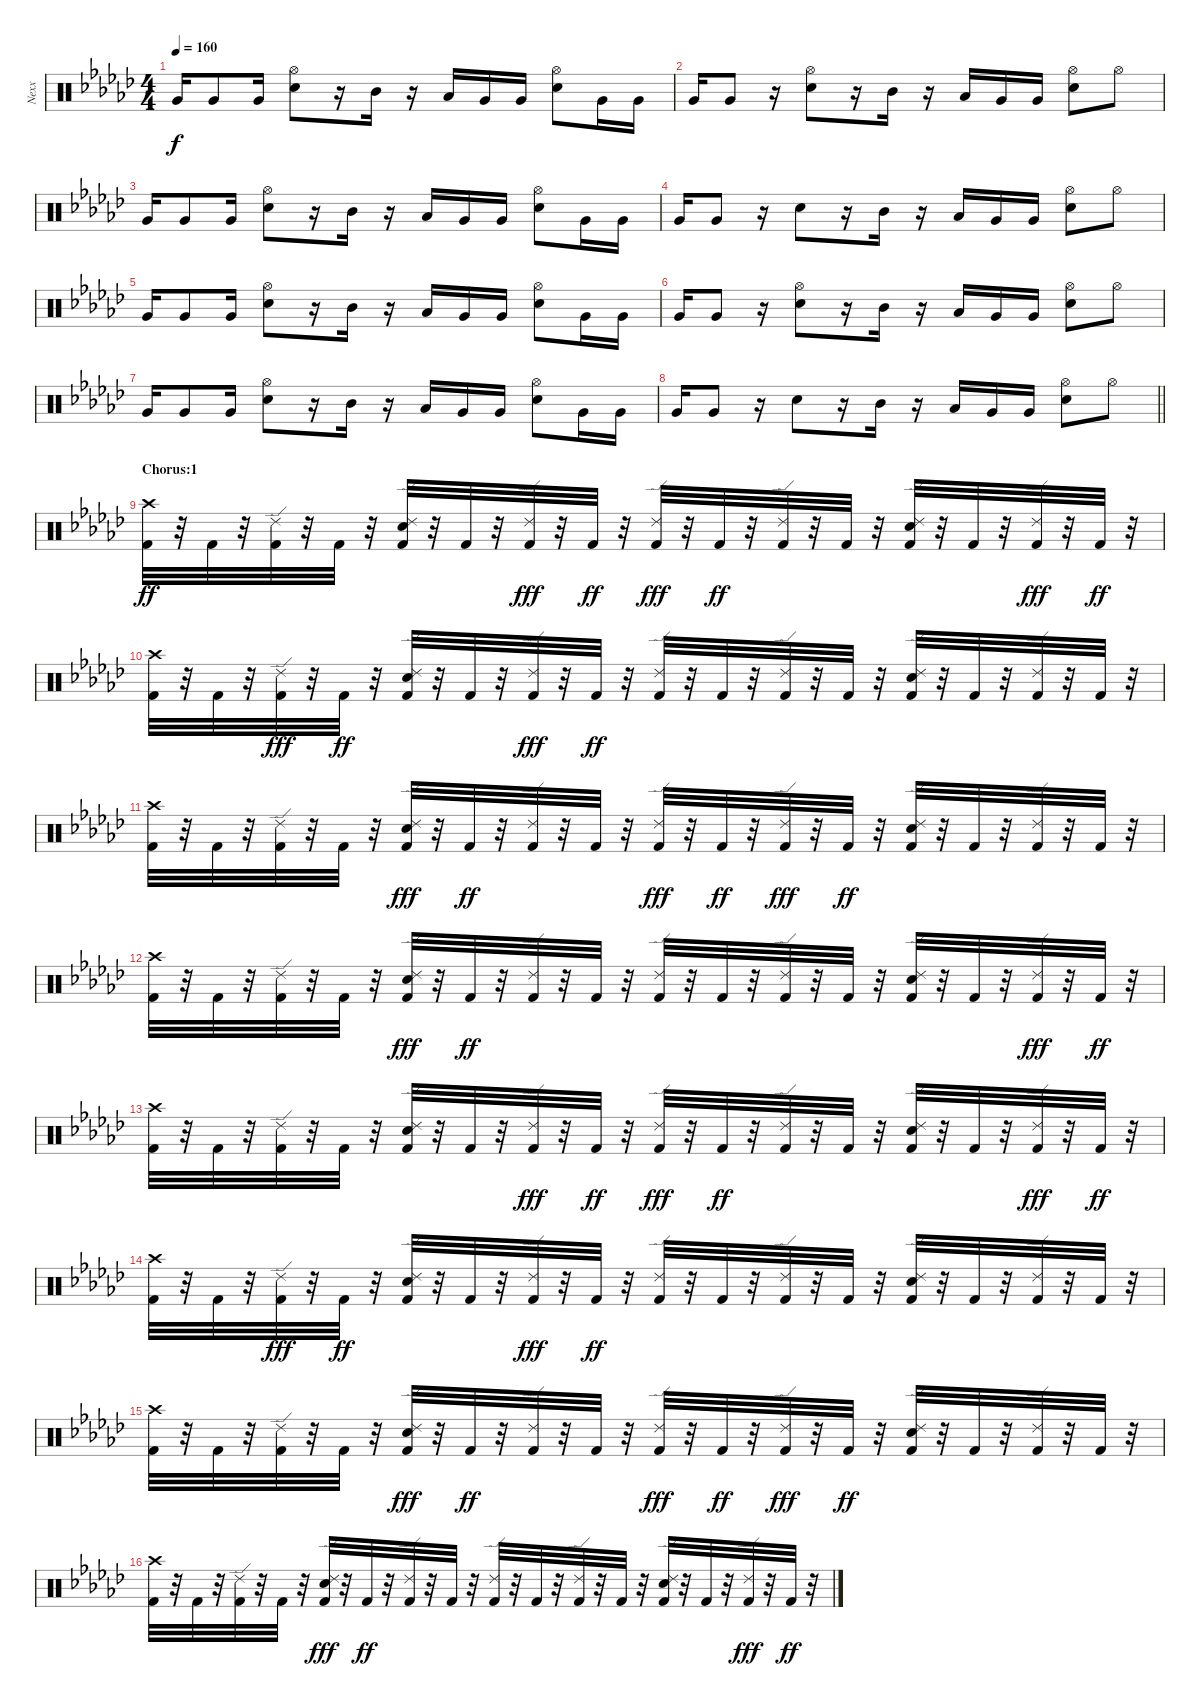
\track ("Nexx" "Nexx") {instrument percussion}
\staff {score}
\articulation defaults
\ts (4 4)
\tempo 160
\clef neutral
\ks ebminor "Very Low Tom (hit)".16{dy f} "Very Low Tom (hit)".8 "Very Low Tom (hit)".16
("Hi-Hat (open)" "Snare (hit) 2").8 r.16 "Mid Tom (hit)".16 r.16 "Low Tom (hit)".16 "Very Low Tom (hit)".16 "Very Low Tom (hit)".16 ("Hi-Hat (open)" "Snare (hit) 2").8 "Very Low Tom (hit)".16 "Very Low Tom (hit)".16 |
"Very Low Tom (hit)".16 "Very Low Tom (hit)".8 r.16 ("Hi-Hat (open)" "Snare (hit) 2").8 r.16 "Mid Tom (hit)".16 r.16 "Low Tom (hit)".16 "Very Low Tom (hit)".16 "Very Low Tom (hit)".16 ("Hi-Hat (open)" "Snare (hit) 2").8 "Hi-Hat (open)".8 |
"Very Low Tom (hit)".16 "Very Low Tom (hit)".8 "Very Low Tom (hit)".16 ("Hi-Hat (open)" "Snare (hit) 2").8 r.16 "Mid Tom (hit)".16 r.16 "Low Tom (hit)".16 "Very Low Tom (hit)".16 "Very Low Tom (hit)".16 ("Hi-Hat (open)" "Snare (hit) 2").8 "Very Low Tom (hit)".16 "Very Low Tom (hit)".16 |
"Very Low Tom (hit)".16 "Very Low Tom (hit)".8 r.16 "Snare (hit) 2".8 r.16 "Mid Tom (hit)".16 r.16 "Low Tom (hit)".16 "Very Low Tom (hit)".16 "Very Low Tom (hit)".16 ("Hi-Hat (open)" "Snare (hit) 2").8 "Hi-Hat (open)".8 |
"Very Low Tom (hit)".16 "Very Low Tom (hit)".8 "Very Low Tom (hit)".16 ("Hi-Hat (open)" "Snare (hit) 2").8 r.16 "Mid Tom (hit)".16 r.16 "Low Tom (hit)".16 "Very Low Tom (hit)".16 "Very Low Tom (hit)".16 ("Hi-Hat (open)" "Snare (hit) 2").8 "Very Low Tom (hit)".16 "Very Low Tom (hit)".16 |
"Very Low Tom (hit)".16 "Very Low Tom (hit)".8 r.16 ("Hi-Hat (open)" "Snare (hit) 2").8 r.16 "Mid Tom (hit)".16 r.16 "Low Tom (hit)".16 "Very Low Tom (hit)".16 "Very Low Tom (hit)".16 ("Hi-Hat (open)" "Snare (hit) 2").8 "Hi-Hat (open)".8 |
"Very Low Tom (hit)".16 "Very Low Tom (hit)".8 "Very Low Tom (hit)".16 ("Hi-Hat (open)" "Snare (hit) 2").8 r.16 "Mid Tom (hit)".16 r.16 "Low Tom (hit)".16 "Very Low Tom (hit)".16 "Very Low Tom (hit)".16 ("Hi-Hat (open)" "Snare (hit) 2").8 "Very Low Tom (hit)".16 "Very Low Tom (hit)".16 |
\barLineRight lightlight "Very Low Tom (hit)".16 "Very Low Tom (hit)".8
r.16 "Snare (hit) 2".8 r.16 "Mid Tom (hit)".16 r.16 "Low Tom (hit)".16 "Very Low Tom (hit)".16 "Very Low Tom (hit)".16 ("Hi-Hat (open)" "Snare (hit) 2").8 "Hi-Hat (open)".8 |
\section ("" "Chorus:1")
("Crash high (hit)" "Kick (hit) 2").32{dy ff volume 13} r.32 "Kick (hit) 2".32 r.32 ("Ride (edge) 2" "Kick (hit) 2").32 r.32 "Kick (hit) 2".32 r.32 ("Kick (hit) 2" "Ride (edge) 2" "Electric Snare (hit)").32 r.32 "Kick (hit) 2".32 r.32 ("Kick (hit) 2" "Ride (edge) 2").32{dy fff} r.32 "Kick (hit) 2".32{dy ff} r.32 ("Kick (hit) 2" "Ride (edge) 2").32{dy fff} r.32 "Kick (hit) 2".32{dy ff} r.32 ("Ride (edge) 2" "Kick (hit) 2").32 r.32 "Kick (hit) 2".32 r.32 ("Electric Snare (hit)" "Ride (edge) 2" "Kick (hit) 2").32 r.32 "Kick (hit) 2".32 r.32 ("Kick (hit) 2" "Ride (edge) 2").32{dy fff} r.32 "Kick (hit) 2".32{dy ff} r.32 |
("Kick (hit) 2" "Crash high (hit)").32 r.32 "Kick (hit) 2".32 r.32 ("Kick (hit) 2" "Ride (edge) 2").32{dy fff} r.32 "Kick (hit) 2".32{dy ff} r.32 ("Electric Snare (hit)" "Ride (edge) 2" "Kick (hit) 2").32 r.32 "Kick (hit) 2".32 r.32 ("Kick (hit) 2" "Ride (edge) 2").32{dy fff} r.32 "Kick (hit) 2".32{dy ff} r.32 ("Ride (edge) 2" "Kick (hit) 2").32 r.32 "Kick (hit) 2".32 r.32 ("Ride (edge) 2" "Kick (hit) 2").32 r.32 "Kick (hit) 2".32 r.32 ("Kick (hit) 2" "Ride (edge) 2" "Electric Snare (hit)").32 r.32 "Kick (hit) 2".32 r.32 ("Ride (edge) 2" "Kick (hit) 2").32 r.32 "Kick (hit) 2".32 r.32 |
("Crash high (hit)" "Kick (hit) 2").32 r.32 "Kick (hit) 2".32 r.32 ("Ride (edge) 2" "Kick (hit) 2").32 r.32 "Kick (hit) 2".32 r.32 ("Kick (hit) 2" "Electric Snare (hit)" "Ride (edge) 2").32{dy fff} r.32 "Kick (hit) 2".32{dy ff} r.32 ("Ride (edge) 2" "Kick (hit) 2").32 r.32 "Kick (hit) 2".32 r.32 ("Kick (hit) 2" "Ride (edge) 2").32{dy fff} r.32 "Kick (hit) 2".32{dy ff} r.32 ("Kick (hit) 2" "Ride (edge) 2").32{dy fff} r.32 "Kick (hit) 2".32{dy ff} r.32 ("Ride (edge) 2" "Electric Snare (hit)" "Kick (hit) 2").32 r.32 "Kick (hit) 2".32 r.32 ("Ride (edge) 2" "Kick (hit) 2").32 r.32 "Kick (hit) 2".32 r.32 |
("Kick (hit) 2" "Crash high (hit)").32 r.32 "Kick (hit) 2".32 r.32 ("Ride (edge) 2" "Kick (hit) 2").32 r.32 "Kick (hit) 2".32 r.32 ("Electric Snare (hit)" "Kick (hit) 2" "Ride (edge) 2").32{dy fff} r.32 "Kick (hit) 2".32{dy ff} r.32 ("Ride (edge) 2" "Kick (hit) 2").32 r.32 "Kick (hit) 2".32 r.32 ("Ride (edge) 2" "Kick (hit) 2").32 r.32 "Kick (hit) 2".32 r.32 ("Ride (edge) 2" "Kick (hit) 2").32 r.32 "Kick (hit) 2".32 r.32 ("Kick (hit) 2" "Ride (edge) 2" "Electric Snare (hit)").32 r.32 "Kick (hit) 2".32 r.32 ("Kick (hit) 2" "Ride (edge) 2").32{dy fff} r.32 "Kick (hit) 2".32{dy ff} r.32 |
("Crash high (hit)" "Kick (hit) 2").32 r.32 "Kick (hit) 2".32 r.32 ("Ride (edge) 2" "Kick (hit) 2").32 r.32 "Kick (hit) 2".32 r.32 ("Kick (hit) 2" "Ride (edge) 2" "Electric Snare (hit)").32 r.32 "Kick (hit) 2".32 r.32 ("Kick (hit) 2" "Ride (edge) 2").32{dy fff} r.32 "Kick (hit) 2".32{dy ff} r.32 ("Kick (hit) 2" "Ride (edge) 2").32{dy fff} r.32 "Kick (hit) 2".32{dy ff} r.32 ("Ride (edge) 2" "Kick (hit) 2").32 r.32 "Kick (hit) 2".32 r.32 ("Electric Snare (hit)" "Ride (edge) 2" "Kick (hit) 2").32 r.32 "Kick (hit) 2".32 r.32 ("Kick (hit) 2" "Ride (edge) 2").32{dy fff} r.32 "Kick (hit) 2".32{dy ff} r.32 |
("Kick (hit) 2" "Crash high (hit)").32 r.32 "Kick (hit) 2".32 r.32 ("Kick (hit) 2" "Ride (edge) 2").32{dy fff} r.32 "Kick (hit) 2".32{dy ff} r.32 ("Electric Snare (hit)" "Ride (edge) 2" "Kick (hit) 2").32 r.32 "Kick (hit) 2".32 r.32 ("Kick (hit) 2" "Ride (edge) 2").32{dy fff} r.32 "Kick (hit) 2".32{dy ff} r.32 ("Ride (edge) 2" "Kick (hit) 2").32 r.32 "Kick (hit) 2".32 r.32 ("Ride (edge) 2" "Kick (hit) 2").32 r.32 "Kick (hit) 2".32 r.32 ("Kick (hit) 2" "Ride (edge) 2" "Electric Snare (hit)").32 r.32 "Kick (hit) 2".32 r.32 ("Ride (edge) 2" "Kick (hit) 2").32 r.32 "Kick (hit) 2".32 r.32 |
("Crash high (hit)" "Kick (hit) 2").32 r.32 "Kick (hit) 2".32 r.32 ("Ride (edge) 2" "Kick (hit) 2").32 r.32 "Kick (hit) 2".32 r.32 ("Kick (hit) 2" "Electric Snare (hit)" "Ride (edge) 2").32{dy fff} r.32 "Kick (hit) 2".32{dy ff} r.32 ("Ride (edge) 2" "Kick (hit) 2").32 r.32 "Kick (hit) 2".32 r.32 ("Kick (hit) 2" "Ride (edge) 2").32{dy fff} r.32 "Kick (hit) 2".32{dy ff} r.32 ("Kick (hit) 2" "Ride (edge) 2").32{dy fff} r.32 "Kick (hit) 2".32{dy ff} r.32 ("Ride (edge) 2" "Electric Snare (hit)" "Kick (hit) 2").32 r.32 "Kick (hit) 2".32 r.32 ("Ride (edge) 2" "Kick (hit) 2").32 r.32 "Kick (hit) 2".32 r.32 |
("Kick (hit) 2" "Crash high (hit)").32 r.32 "Kick (hit) 2".32 r.32 ("Ride (edge) 2" "Kick (hit) 2").32 r.32 "Kick (hit) 2".32 r.32 ("Electric Snare (hit)" "Kick (hit) 2" "Ride (edge) 2").32{dy fff} r.32 "Kick (hit) 2".32{dy ff} r.32 ("Ride (edge) 2" "Kick (hit) 2").32 r.32 "Kick (hit) 2".32 r.32 ("Ride (edge) 2" "Kick (hit) 2").32 r.32 "Kick (hit) 2".32 r.32 ("Ride (edge) 2" "Kick (hit) 2").32 r.32 "Kick (hit) 2".32 r.32 ("Kick (hit) 2" "Ride (edge) 2" "Electric Snare (hit)").32 r.32 "Kick (hit) 2".32 r.32 ("Kick (hit) 2" "Ride (edge) 2").32{dy fff} r.32 "Kick (hit) 2".32{dy ff} r.32
